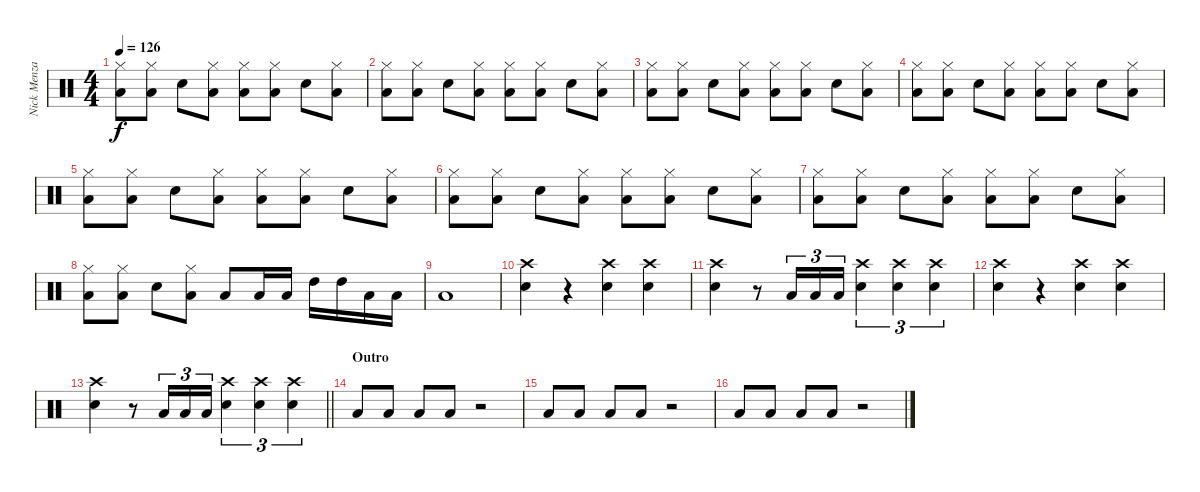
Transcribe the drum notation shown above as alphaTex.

\track ("Nick Menza" "Nick Menza") {instrument percussion}
\staff {score}
\articulation defaults
\ts (4 4)
\tempo 126
\clef neutral
\ks c
("Low Tom (hit)" "Hi-Hat (closed)").8{dy f} ("Low Tom (hit)" "Hi-Hat (closed)").8 "Electric Snare (hit)".8 ("Low Tom (hit)" "Hi-Hat (closed)").8 ("Low Tom (hit)" "Hi-Hat (closed)").8 ("Low Tom (hit)" "Hi-Hat (closed)").8 "Electric Snare (hit)".8 ("Low Tom (hit)" "Hi-Hat (closed)").8 |
("Low Tom (hit)" "Hi-Hat (closed)").8 ("Low Tom (hit)" "Hi-Hat (closed)").8 "Electric Snare (hit)".8 ("Low Tom (hit)" "Hi-Hat (closed)").8 ("Low Tom (hit)" "Hi-Hat (closed)").8 ("Low Tom (hit)" "Hi-Hat (closed)").8 "Electric Snare (hit)".8 ("Low Tom (hit)" "Hi-Hat (closed)").8 |
("Low Tom (hit)" "Hi-Hat (closed)").8 ("Low Tom (hit)" "Hi-Hat (closed)").8 "Electric Snare (hit)".8 ("Low Tom (hit)" "Hi-Hat (closed)").8 ("Low Tom (hit)" "Hi-Hat (closed)").8 ("Low Tom (hit)" "Hi-Hat (closed)").8 "Electric Snare (hit)".8 ("Low Tom (hit)" "Hi-Hat (closed)").8 |
("Low Tom (hit)" "Hi-Hat (closed)").8 ("Low Tom (hit)" "Hi-Hat (closed)").8 "Electric Snare (hit)".8 ("Low Tom (hit)" "Hi-Hat (closed)").8 ("Low Tom (hit)" "Hi-Hat (closed)").8 ("Low Tom (hit)" "Hi-Hat (closed)").8 "Electric Snare (hit)".8 ("Low Tom (hit)" "Hi-Hat (closed)").8 |
("Low Tom (hit)" "Hi-Hat (closed)").8 ("Low Tom (hit)" "Hi-Hat (closed)").8 "Electric Snare (hit)".8 ("Low Tom (hit)" "Hi-Hat (closed)").8 ("Low Tom (hit)" "Hi-Hat (closed)").8 ("Low Tom (hit)" "Hi-Hat (closed)").8 "Electric Snare (hit)".8 ("Low Tom (hit)" "Hi-Hat (closed)").8 |
("Low Tom (hit)" "Hi-Hat (closed)").8 ("Low Tom (hit)" "Hi-Hat (closed)").8 "Electric Snare (hit)".8 ("Low Tom (hit)" "Hi-Hat (closed)").8 ("Low Tom (hit)" "Hi-Hat (closed)").8 ("Low Tom (hit)" "Hi-Hat (closed)").8 "Electric Snare (hit)".8 ("Low Tom (hit)" "Hi-Hat (closed)").8 |
("Low Tom (hit)" "Hi-Hat (closed)").8 ("Low Tom (hit)" "Hi-Hat (closed)").8 "Electric Snare (hit)".8 ("Low Tom (hit)" "Hi-Hat (closed)").8 ("Low Tom (hit)" "Hi-Hat (closed)").8 ("Low Tom (hit)" "Hi-Hat (closed)").8 "Electric Snare (hit)".8 ("Low Tom (hit)" "Hi-Hat (closed)").8 |
("Low Tom (hit)" "Hi-Hat (closed)").8 ("Low Tom (hit)" "Hi-Hat (closed)").8 "Electric Snare (hit)".8 ("Low Tom (hit)" "Hi-Hat (closed)").8 "Low Tom (hit)".8 "Low Tom (hit)".16 "Low Tom (hit)".16 "High Tom (hit)".16 "High Tom (hit)".16 "Low Tom (hit)".16 "Low Tom (hit)".16 |
"Low Tom (hit)".1 |
("Electric Snare (hit)" "Crash high (hit)").4 r.4 ("Electric Snare (hit)" "Crash high (hit)").4 ("Electric Snare (hit)" "Crash high (hit)").4 |
("Electric Snare (hit)" "Crash high (hit)").4 r.8 "Low Tom (hit)".16{tu (3 2)} "Low Tom (hit)".16{tu (3 2)} "Low Tom (hit)".16{tu (3 2)} ("Electric Snare (hit)" "Crash high (hit)").4{tu (3 2)} ("Electric Snare (hit)" "Crash high (hit)").4{tu (3 2)} ("Electric Snare (hit)" "Crash high (hit)").4{tu (3 2)} |
("Electric Snare (hit)" "Crash high (hit)").4 r.4 ("Electric Snare (hit)" "Crash high (hit)").4 ("Electric Snare (hit)" "Crash high (hit)").4 |
\barLineRight lightlight
("Electric Snare (hit)" "Crash high (hit)").4 r.8 "Low Tom (hit)".16{tu (3 2)} "Low Tom (hit)".16{tu (3 2)} "Low Tom (hit)".16{tu (3 2)} ("Electric Snare (hit)" "Crash high (hit)").4{tu (3 2)} ("Electric Snare (hit)" "Crash high (hit)").4{tu (3 2)} ("Electric Snare (hit)" "Crash high (hit)").4{tu (3 2)} |
\section ("" "Outro")
"Low Tom (hit)".8 "Low Tom (hit)".8 "Low Tom (hit)".8 "Low Tom (hit)".8 r.2 |
"Low Tom (hit)".8 "Low Tom (hit)".8 "Low Tom (hit)".8 "Low Tom (hit)".8 r.2 |
"Low Tom (hit)".8 "Low Tom (hit)".8 "Low Tom (hit)".8 "Low Tom (hit)".8 r.2
